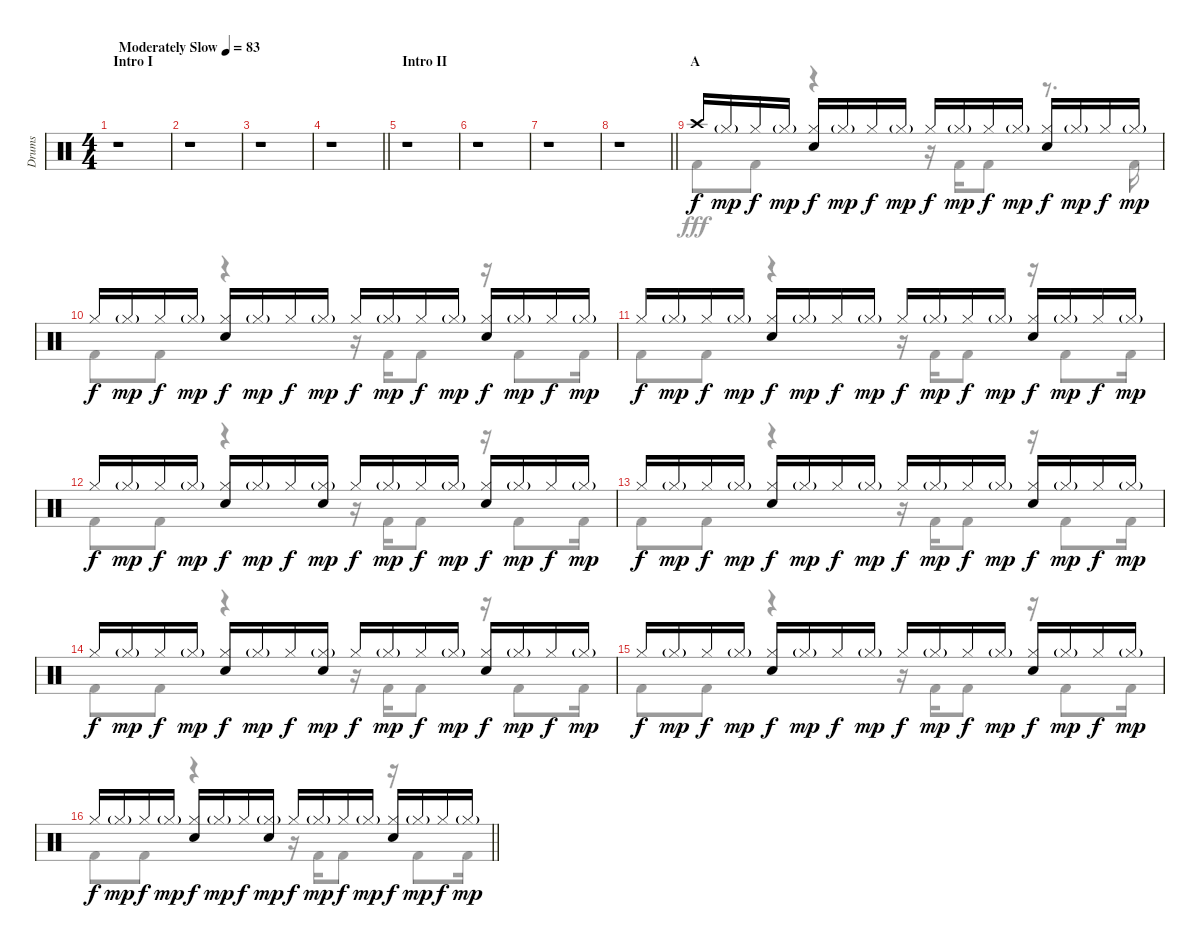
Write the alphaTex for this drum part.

\track ("Drums" "Drums") {instrument percussion}
\staff {score}
\articulation defaults
\voice
\ts (4 4)
\section ("" "Intro I")
\tempo (83 "Moderately Slow")
\clef neutral
\ks c
r.1{dy f} |
r.1 |
r.1 |
\barLineRight lightlight
r.1 |
\section ("" "Intro II")
r.1 |
r.1 |
r.1 |
\barLineRight lightlight
r.1 |
\section ("" "A")
"Crash high (hit)".16 "Hi-Hat (closed)"{g}.16{dy mp} "Hi-Hat (closed)".16{dy f} "Hi-Hat (closed)"{g}.16{dy mp} ("Hi-Hat (closed)" "Snare (hit) 2").16{dy f} "Hi-Hat (closed)"{g}.16{dy mp} "Hi-Hat (closed)".16{dy f} "Hi-Hat (closed)"{g}.16{dy mp} "Hi-Hat (closed)".16{dy f} "Hi-Hat (closed)"{g}.16{dy mp} "Hi-Hat (closed)".16{dy f} "Hi-Hat (closed)"{g}.16{dy mp} ("Hi-Hat (closed)" "Snare (hit) 2").16{dy f} "Hi-Hat (closed)"{g}.16{dy mp} "Hi-Hat (closed)".16{dy f} "Hi-Hat (closed)"{g}.16{dy mp} |
"Hi-Hat (closed)".16{dy f} "Hi-Hat (closed)"{g}.16{dy mp} "Hi-Hat (closed)".16{dy f} "Hi-Hat (closed)"{g}.16{dy mp} ("Hi-Hat (closed)" "Snare (hit) 2").16{dy f} "Hi-Hat (closed)"{g}.16{dy mp} "Hi-Hat (closed)".16{dy f} "Hi-Hat (closed)"{g}.16{dy mp} "Hi-Hat (closed)".16{dy f} "Hi-Hat (closed)"{g}.16{dy mp} "Hi-Hat (closed)".16{dy f} "Hi-Hat (closed)"{g}.16{dy mp} ("Hi-Hat (closed)" "Snare (hit) 2").16{dy f} "Hi-Hat (closed)"{g}.16{dy mp} "Hi-Hat (closed)".16{dy f} "Hi-Hat (closed)"{g}.16{dy mp} |
"Hi-Hat (closed)".16{dy f} "Hi-Hat (closed)"{g}.16{dy mp} "Hi-Hat (closed)".16{dy f} "Hi-Hat (closed)"{g}.16{dy mp} ("Hi-Hat (closed)" "Snare (hit) 2").16{dy f} "Hi-Hat (closed)"{g}.16{dy mp} "Hi-Hat (closed)".16{dy f} "Hi-Hat (closed)"{g}.16{dy mp} "Hi-Hat (closed)".16{dy f} "Hi-Hat (closed)"{g}.16{dy mp} "Hi-Hat (closed)".16{dy f} "Hi-Hat (closed)"{g}.16{dy mp} ("Hi-Hat (closed)" "Snare (hit) 2").16{dy f} "Hi-Hat (closed)"{g}.16{dy mp} "Hi-Hat (closed)".16{dy f} "Hi-Hat (closed)"{g}.16{dy mp} |
"Hi-Hat (closed)".16{dy f} "Hi-Hat (closed)"{g}.16{dy mp} "Hi-Hat (closed)".16{dy f} "Hi-Hat (closed)"{g}.16{dy mp} ("Hi-Hat (closed)" "Snare (hit) 2").16{dy f} "Hi-Hat (closed)"{g}.16{dy mp} "Hi-Hat (closed)".16{dy f} ("Hi-Hat (closed)"{g} "Snare (hit) 2").16{dy mp} "Hi-Hat (closed)".16{dy f} "Hi-Hat (closed)"{g}.16{dy mp} "Hi-Hat (closed)".16{dy f} "Hi-Hat (closed)"{g}.16{dy mp} ("Hi-Hat (closed)" "Snare (hit) 2").16{dy f} "Hi-Hat (closed)"{g}.16{dy mp} "Hi-Hat (closed)".16{dy f} "Hi-Hat (closed)"{g}.16{dy mp} |
"Hi-Hat (closed)".16{dy f} "Hi-Hat (closed)"{g}.16{dy mp} "Hi-Hat (closed)".16{dy f} "Hi-Hat (closed)"{g}.16{dy mp} ("Hi-Hat (closed)" "Snare (hit) 2").16{dy f} "Hi-Hat (closed)"{g}.16{dy mp} "Hi-Hat (closed)".16{dy f} "Hi-Hat (closed)"{g}.16{dy mp} "Hi-Hat (closed)".16{dy f} "Hi-Hat (closed)"{g}.16{dy mp} "Hi-Hat (closed)".16{dy f} "Hi-Hat (closed)"{g}.16{dy mp} ("Hi-Hat (closed)" "Snare (hit) 2").16{dy f} "Hi-Hat (closed)"{g}.16{dy mp} "Hi-Hat (closed)".16{dy f} "Hi-Hat (closed)"{g}.16{dy mp} |
"Hi-Hat (closed)".16{dy f} "Hi-Hat (closed)"{g}.16{dy mp} "Hi-Hat (closed)".16{dy f} "Hi-Hat (closed)"{g}.16{dy mp} ("Hi-Hat (closed)" "Snare (hit) 2").16{dy f} "Hi-Hat (closed)"{g}.16{dy mp} "Hi-Hat (closed)".16{dy f} ("Hi-Hat (closed)"{g} "Snare (hit) 2").16{dy mp} "Hi-Hat (closed)".16{dy f} "Hi-Hat (closed)"{g}.16{dy mp} "Hi-Hat (closed)".16{dy f} "Hi-Hat (closed)"{g}.16{dy mp} ("Hi-Hat (closed)" "Snare (hit) 2").16{dy f} "Hi-Hat (closed)"{g}.16{dy mp} "Hi-Hat (closed)".16{dy f} "Hi-Hat (closed)"{g}.16{dy mp} |
"Hi-Hat (closed)".16{dy f} "Hi-Hat (closed)"{g}.16{dy mp} "Hi-Hat (closed)".16{dy f} "Hi-Hat (closed)"{g}.16{dy mp} ("Hi-Hat (closed)" "Snare (hit) 2").16{dy f} "Hi-Hat (closed)"{g}.16{dy mp} "Hi-Hat (closed)".16{dy f} "Hi-Hat (closed)"{g}.16{dy mp} "Hi-Hat (closed)".16{dy f} "Hi-Hat (closed)"{g}.16{dy mp} "Hi-Hat (closed)".16{dy f} "Hi-Hat (closed)"{g}.16{dy mp} ("Hi-Hat (closed)" "Snare (hit) 2").16{dy f} "Hi-Hat (closed)"{g}.16{dy mp} "Hi-Hat (closed)".16{dy f} "Hi-Hat (closed)"{g}.16{dy mp} |
\barLineRight lightlight "Hi-Hat (closed)".16{dy f} "Hi-Hat (closed)"{g}.16{dy mp} "Hi-Hat (closed)".16{dy f} "Hi-Hat (closed)"{g}.16{dy mp}
("Hi-Hat (closed)" "Snare (hit) 2").16{dy f} "Hi-Hat (closed)"{g}.16{dy mp} "Hi-Hat (closed)".16{dy f} ("Hi-Hat (closed)"{g} "Snare (hit) 2").16{dy mp} "Hi-Hat (closed)".16{dy f} "Hi-Hat (closed)"{g}.16{dy mp} "Hi-Hat (closed)".16{dy f} "Hi-Hat (closed)"{g}.16{dy mp} ("Hi-Hat (closed)" "Snare (hit) 2").16{dy f} "Hi-Hat (closed)"{g}.16{dy mp} "Hi-Hat (closed)".16{dy f} "Hi-Hat (closed)"{g}.16{dy mp}
\voice
\clef neutral
\ottava regular
\simile none
\ks c
r.1{dy fff} |
r.1 |
r.1 |
\barLineRight lightlight
r.1 |
r.1 |
r.1 |
r.1 |
\barLineRight lightlight
r.1 |
"Kick (hit) 2".8 "Kick (hit) 2".8 r.4 r.16 "Kick (hit) 2".16 "Kick (hit) 2".8 r.8{d} "Kick (hit) 2".16 |
"Kick (hit) 2".8 "Kick (hit) 2".8 r.4 r.16 "Kick (hit) 2".16 "Kick (hit) 2".8 r.16 "Kick (hit) 2".8 "Kick (hit) 2".16 |
"Kick (hit) 2".8 "Kick (hit) 2".8 r.4 r.16 "Kick (hit) 2".16 "Kick (hit) 2".8 r.16 "Kick (hit) 2".8 "Kick (hit) 2".16 |
"Kick (hit) 2".8 "Kick (hit) 2".8 r.4 r.16 "Kick (hit) 2".16 "Kick (hit) 2".8 r.16 "Kick (hit) 2".8 "Kick (hit) 2".16 |
"Kick (hit) 2".8 "Kick (hit) 2".8 r.4 r.16 "Kick (hit) 2".16 "Kick (hit) 2".8 r.16 "Kick (hit) 2".8 "Kick (hit) 2".16 |
"Kick (hit) 2".8 "Kick (hit) 2".8 r.4 r.16 "Kick (hit) 2".16 "Kick (hit) 2".8 r.16 "Kick (hit) 2".8 "Kick (hit) 2".16 |
"Kick (hit) 2".8 "Kick (hit) 2".8 r.4 r.16 "Kick (hit) 2".16 "Kick (hit) 2".8 r.16 "Kick (hit) 2".8 "Kick (hit) 2".16 |
\barLineRight lightlight "Kick (hit) 2".8 "Kick (hit) 2".8
r.4 r.16 "Kick (hit) 2".16 "Kick (hit) 2".8 r.16 "Kick (hit) 2".8 "Kick (hit) 2".16
